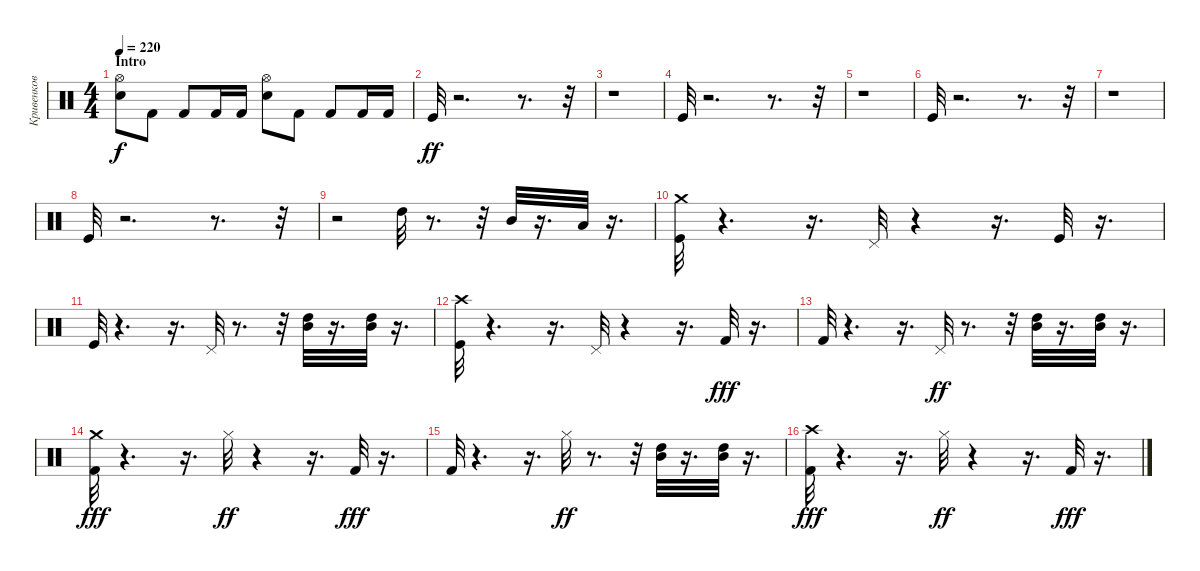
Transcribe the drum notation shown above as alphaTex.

\track ("Кривенков" "Кривенков") {instrument percussion}
\staff {score}
\articulation defaults
\ts (4 4)
\section ("" "Intro")
\tempo 220
\clef neutral
\ks c
("Electric Snare (hit)" "Hi-Hat (open)").8{dy f} "Kick (hit) 2".8 "Kick (hit) 2".8 "Kick (hit) 2".16 "Kick (hit) 2".16 ("Hi-Hat (open)" "Electric Snare (hit)").8 "Kick (hit) 2".8 "Kick (hit) 2".8 "Kick (hit) 2".16 "Kick (hit) 2".16 |
"Kick (hit)".32{dy ff} r.2{d} r.8{d} r.32 |
r.1 |
"Kick (hit)".32 r.2{d} r.8{d} r.32 |
r.1 |
"Kick (hit)".32 r.2{d} r.8{d} r.32 |
r.1 |
"Kick (hit)".32 r.2{d} r.8{d} r.32 |
r.2 "High Tom (hit)".32 r.8{d} r.32 "Mid Tom (hit)".32 r.16{d} "Low Tom (hit)".32 r.16{d} |
("Crash medium (hit)" "Kick (hit)").32 r.4{d} r.16{d} "Pedal Hi-Hat (hit)".32 r.4 r.16{d} "Kick (hit)".32 r.16{d} |
"Kick (hit)".32 r.4{d} r.16{d} "Pedal Hi-Hat (hit)".32 r.8{d} r.32 ("Mid Tom (hit)" "High Tom (hit)").32 r.16{d} ("Mid Tom (hit)" "High Tom (hit)").32 r.16{d} |
("Crash high (hit)" "Kick (hit)").32 r.4{d} r.16{d} "Pedal Hi-Hat (hit)".32 r.4 r.16{d} "Kick (hit) 2".32{dy fff} r.16{d} |
"Kick (hit) 2".32 r.4{d} r.16{d} "Pedal Hi-Hat (hit)".32{dy ff} r.8{d} r.32 ("High Tom (hit)" "Mid Tom (hit)").32 r.16{d} ("High Tom (hit)" "Mid Tom (hit)").32 r.16{d} |
("Crash medium (hit)" "Kick (hit) 2").32{dy fff} r.4{d} r.16{d} "Hi-Hat (closed)".32{dy ff} r.4 r.16{d} "Kick (hit) 2".32{dy fff} r.16{d} |
"Kick (hit) 2".32 r.4{d} r.16{d} "Hi-Hat (closed)".32{dy ff} r.8{d} r.32 ("Mid Tom (hit)" "High Tom (hit)").32 r.16{d} ("Mid Tom (hit)" "High Tom (hit)").32 r.16{d} |
("Crash high (hit)" "Kick (hit) 2").32{dy fff} r.4{d} r.16{d} "Hi-Hat (closed)".32{dy ff} r.4 r.16{d} "Kick (hit) 2".32{dy fff} r.16{d}
